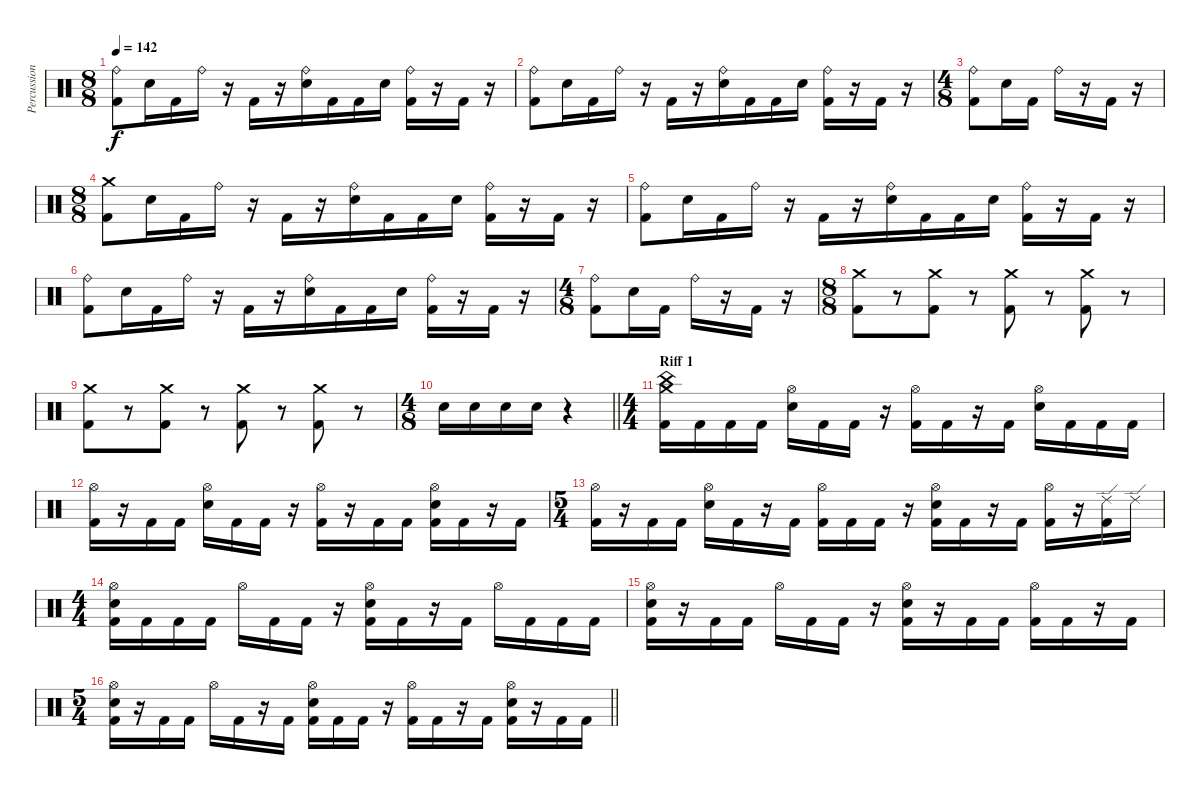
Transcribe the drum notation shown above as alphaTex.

\track ("Percussions" "Percussion") {instrument percussion}
\staff {score}
\articulation defaults
\ts (8 8)
\tempo 142
\clef neutral
\ks c
("Ride (bell)" "Kick (hit) 2").8{dy f} "Electric Snare (hit)".16 "Kick (hit) 2".16 "Ride (bell)".16 r.16 "Kick (hit) 2".16 r.16 ("Ride (bell)" "Electric Snare (hit)").16 "Kick (hit) 2".16 "Kick (hit) 2".16 "Electric Snare (hit)".16 ("Ride (bell)" "Kick (hit) 2").16 r.16 "Kick (hit) 2".16 r.16 |
("Ride (bell)" "Kick (hit) 2").8 "Electric Snare (hit)".16 "Kick (hit) 2".16 "Ride (bell)".16 r.16 "Kick (hit) 2".16 r.16 ("Ride (bell)" "Electric Snare (hit)").16 "Kick (hit) 2".16 "Kick (hit) 2".16 "Electric Snare (hit)".16 ("Ride (bell)" "Kick (hit) 2").16 r.16 "Kick (hit) 2".16 r.16 |
\ts (4 8)
("Ride (bell)" "Kick (hit) 2").8 "Electric Snare (hit)".16 "Kick (hit) 2".16 "Ride (bell)".16 r.16 "Kick (hit) 2".16 r.16 |
\ts (8 8)
("Crash medium (hit)" "Kick (hit) 2").8 "Electric Snare (hit)".16 "Kick (hit) 2".16 "Ride (bell)".16 r.16 "Kick (hit) 2".16 r.16 ("Ride (bell)" "Electric Snare (hit)").16 "Kick (hit) 2".16 "Kick (hit) 2".16 "Electric Snare (hit)".16 ("Ride (bell)" "Kick (hit) 2").16 r.16 "Kick (hit) 2".16 r.16 |
("Ride (bell)" "Kick (hit) 2").8 "Electric Snare (hit)".16 "Kick (hit) 2".16 "Ride (bell)".16 r.16 "Kick (hit) 2".16 r.16 ("Ride (bell)" "Electric Snare (hit)").16 "Kick (hit) 2".16 "Kick (hit) 2".16 "Electric Snare (hit)".16 ("Ride (bell)" "Kick (hit) 2").16 r.16 "Kick (hit) 2".16 r.16 |
("Ride (bell)" "Kick (hit) 2").8 "Electric Snare (hit)".16 "Kick (hit) 2".16 "Ride (bell)".16 r.16 "Kick (hit) 2".16 r.16 ("Ride (bell)" "Electric Snare (hit)").16 "Kick (hit) 2".16 "Kick (hit) 2".16 "Electric Snare (hit)".16 ("Ride (bell)" "Kick (hit) 2").16 r.16 "Kick (hit) 2".16 r.16 |
\ts (4 8)
("Ride (bell)" "Kick (hit) 2").8 "Electric Snare (hit)".16 "Kick (hit) 2".16 "Ride (bell)".16 r.16 "Kick (hit) 2".16 r.16 |
\ts (8 8)
("Crash medium (hit)" "Kick (hit) 2").8 r.8 ("Crash medium (hit)" "Kick (hit) 2").8 r.8 ("Crash medium (hit)" "Kick (hit) 2").8 r.8 ("Crash medium (hit)" "Kick (hit) 2").8 r.8 |
("Crash medium (hit)" "Kick (hit) 2").8 r.8 ("Crash medium (hit)" "Kick (hit) 2").8 r.8 ("Crash medium (hit)" "Kick (hit) 2").8 r.8 ("Crash medium (hit)" "Kick (hit) 2").8 r.8 |
\ts (4 8)
\barLineRight lightlight "Electric Snare (hit)".16 "Electric Snare (hit)".16 "Electric Snare (hit)".16 "Electric Snare (hit)".16
r.4 |
\ts (4 4)
\section ("" "Riff 1")
("Crash medium (hit)" "China (hit)" "Kick (hit) 2").16 "Kick (hit) 2".16 "Kick (hit) 2".16 "Kick (hit) 2".16 ("Hi-Hat (open)" "Electric Snare (hit)").16 "Kick (hit) 2".16 "Kick (hit) 2".16 r.16 ("Hi-Hat (open)" "Kick (hit) 2").16 "Kick (hit) 2".16 r.16 "Kick (hit) 2".16 ("Hi-Hat (open)" "Electric Snare (hit)").16 "Kick (hit) 2".16 "Kick (hit) 2".16 "Kick (hit) 2".16 |
("Hi-Hat (open)" "Kick (hit) 2").16 r.16 "Kick (hit) 2".16 "Kick (hit) 2".16 ("Hi-Hat (open)" "Electric Snare (hit)").16 "Kick (hit) 2".16 "Kick (hit) 2".16 r.16 ("Hi-Hat (open)" "Kick (hit) 2").16 r.16 "Kick (hit) 2".16 "Kick (hit) 2".16 ("Hi-Hat (open)" "Electric Snare (hit)" "Kick (hit) 2").16 "Kick (hit) 2".16 r.16 "Kick (hit) 2".16 |
\ts (5 4)
("Hi-Hat (open)" "Kick (hit) 2").16 r.16 "Kick (hit) 2".16 "Kick (hit) 2".16 ("Hi-Hat (open)" "Electric Snare (hit)").16 "Kick (hit) 2".16 r.16 "Kick (hit) 2".16 ("Hi-Hat (open)" "Kick (hit) 2").16 "Kick (hit) 2".16 "Kick (hit) 2".16 r.16 ("Hi-Hat (open)" "Electric Snare (hit)" "Kick (hit) 2").16 "Kick (hit) 2".16 r.16 "Kick (hit) 2".16 ("Hi-Hat (open)" "Kick (hit) 2").16 r.16 ("Ride (edge) 2" "Kick (hit) 2").16 "Ride (edge) 2".16 |
\ts (4 4)
("Hi-Hat (open)" "Electric Snare (hit)" "Kick (hit) 2").16 "Kick (hit) 2".16 "Kick (hit) 2".16 "Kick (hit) 2".16 "Hi-Hat (open)".16 "Kick (hit) 2".16 "Kick (hit) 2".16 r.16 ("Hi-Hat (open)" "Electric Snare (hit)" "Kick (hit) 2").16 "Kick (hit) 2".16 r.16 "Kick (hit) 2".16 "Hi-Hat (open)".16 "Kick (hit) 2".16 "Kick (hit) 2".16 "Kick (hit) 2".16 |
("Hi-Hat (open)" "Electric Snare (hit)" "Kick (hit) 2").16 r.16 "Kick (hit) 2".16 "Kick (hit) 2".16 "Hi-Hat (open)".16 "Kick (hit) 2".16 "Kick (hit) 2".16 r.16 ("Hi-Hat (open)" "Electric Snare (hit)" "Kick (hit) 2").16 r.16 "Kick (hit) 2".16 "Kick (hit) 2".16 ("Hi-Hat (open)" "Kick (hit) 2").16 "Kick (hit) 2".16 r.16 "Kick (hit) 2".16 |
\ts (5 4)
\barLineRight lightlight
("Hi-Hat (open)" "Electric Snare (hit)" "Kick (hit) 2").16 r.16 "Kick (hit) 2".16 "Kick (hit) 2".16 "Hi-Hat (open)".16 "Kick (hit) 2".16 r.16 "Kick (hit) 2".16 ("Hi-Hat (open)" "Electric Snare (hit)" "Kick (hit) 2").16 "Kick (hit) 2".16 "Kick (hit) 2".16 r.16 ("Hi-Hat (open)" "Kick (hit) 2").16 "Kick (hit) 2".16 r.16 "Kick (hit) 2".16 ("Hi-Hat (open)" "Electric Snare (hit)" "Kick (hit) 2").16 r.16 "Kick (hit) 2".16 "Kick (hit) 2".16
